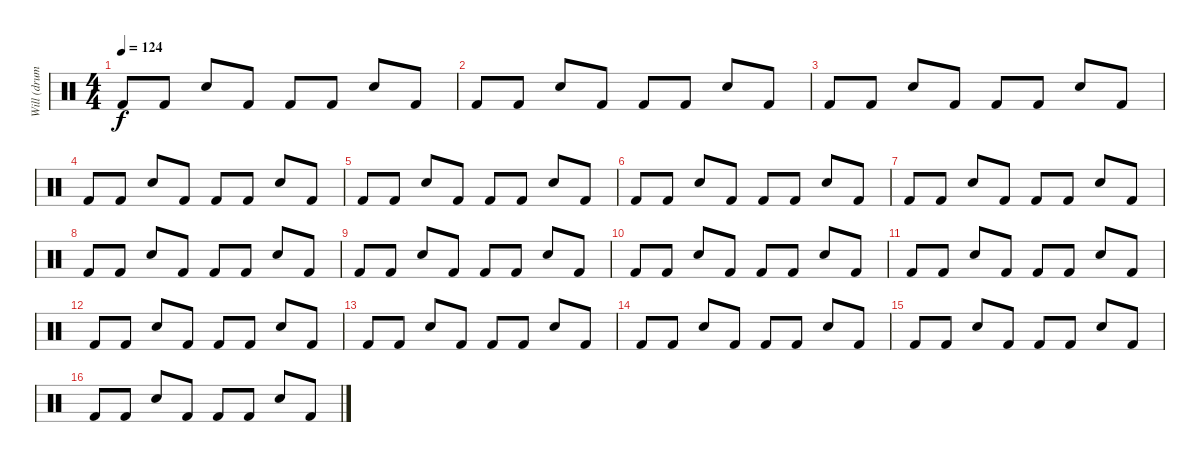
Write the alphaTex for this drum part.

\track ("Will (drums)" "Will (drum") {instrument percussion}
\staff {score}
\articulation defaults
\ts (4 4)
\tempo 124
\clef neutral
\ks c "Kick (hit) 2".8{dy f} "Kick (hit) 2".8 "Snare (hit) 2".8 "Kick (hit) 2".8 "Kick (hit) 2".8 "Kick (hit) 2".8 "Snare (hit) 2".8 "Kick (hit) 2".8
|
"Kick (hit) 2".8 "Kick (hit) 2".8 "Snare (hit) 2".8 "Kick (hit) 2".8 "Kick (hit) 2".8 "Kick (hit) 2".8 "Snare (hit) 2".8 "Kick (hit) 2".8 |
"Kick (hit) 2".8 "Kick (hit) 2".8 "Snare (hit) 2".8 "Kick (hit) 2".8 "Kick (hit) 2".8 "Kick (hit) 2".8 "Snare (hit) 2".8 "Kick (hit) 2".8 |
"Kick (hit) 2".8 "Kick (hit) 2".8 "Snare (hit) 2".8 "Kick (hit) 2".8 "Kick (hit) 2".8 "Kick (hit) 2".8 "Snare (hit) 2".8 "Kick (hit) 2".8 |
"Kick (hit) 2".8 "Kick (hit) 2".8 "Snare (hit) 2".8 "Kick (hit) 2".8 "Kick (hit) 2".8 "Kick (hit) 2".8 "Snare (hit) 2".8 "Kick (hit) 2".8 |
"Kick (hit) 2".8 "Kick (hit) 2".8 "Snare (hit) 2".8 "Kick (hit) 2".8 "Kick (hit) 2".8 "Kick (hit) 2".8 "Snare (hit) 2".8 "Kick (hit) 2".8 |
"Kick (hit) 2".8 "Kick (hit) 2".8 "Snare (hit) 2".8 "Kick (hit) 2".8 "Kick (hit) 2".8 "Kick (hit) 2".8 "Snare (hit) 2".8 "Kick (hit) 2".8 |
"Kick (hit) 2".8 "Kick (hit) 2".8 "Snare (hit) 2".8 "Kick (hit) 2".8 "Kick (hit) 2".8 "Kick (hit) 2".8 "Snare (hit) 2".8 "Kick (hit) 2".8 |
"Kick (hit) 2".8 "Kick (hit) 2".8 "Snare (hit) 2".8 "Kick (hit) 2".8 "Kick (hit) 2".8 "Kick (hit) 2".8 "Snare (hit) 2".8 "Kick (hit) 2".8 |
"Kick (hit) 2".8 "Kick (hit) 2".8 "Snare (hit) 2".8 "Kick (hit) 2".8 "Kick (hit) 2".8 "Kick (hit) 2".8 "Snare (hit) 2".8 "Kick (hit) 2".8 |
"Kick (hit) 2".8 "Kick (hit) 2".8 "Snare (hit) 2".8 "Kick (hit) 2".8 "Kick (hit) 2".8 "Kick (hit) 2".8 "Snare (hit) 2".8 "Kick (hit) 2".8 |
"Kick (hit) 2".8 "Kick (hit) 2".8 "Snare (hit) 2".8 "Kick (hit) 2".8 "Kick (hit) 2".8 "Kick (hit) 2".8 "Snare (hit) 2".8 "Kick (hit) 2".8 |
"Kick (hit) 2".8 "Kick (hit) 2".8 "Snare (hit) 2".8 "Kick (hit) 2".8 "Kick (hit) 2".8 "Kick (hit) 2".8 "Snare (hit) 2".8 "Kick (hit) 2".8 |
"Kick (hit) 2".8 "Kick (hit) 2".8 "Snare (hit) 2".8 "Kick (hit) 2".8 "Kick (hit) 2".8 "Kick (hit) 2".8 "Snare (hit) 2".8 "Kick (hit) 2".8 |
"Kick (hit) 2".8 "Kick (hit) 2".8 "Snare (hit) 2".8 "Kick (hit) 2".8 "Kick (hit) 2".8 "Kick (hit) 2".8 "Snare (hit) 2".8 "Kick (hit) 2".8 |
"Kick (hit) 2".8 "Kick (hit) 2".8 "Snare (hit) 2".8 "Kick (hit) 2".8 "Kick (hit) 2".8 "Kick (hit) 2".8 "Snare (hit) 2".8 "Kick (hit) 2".8
